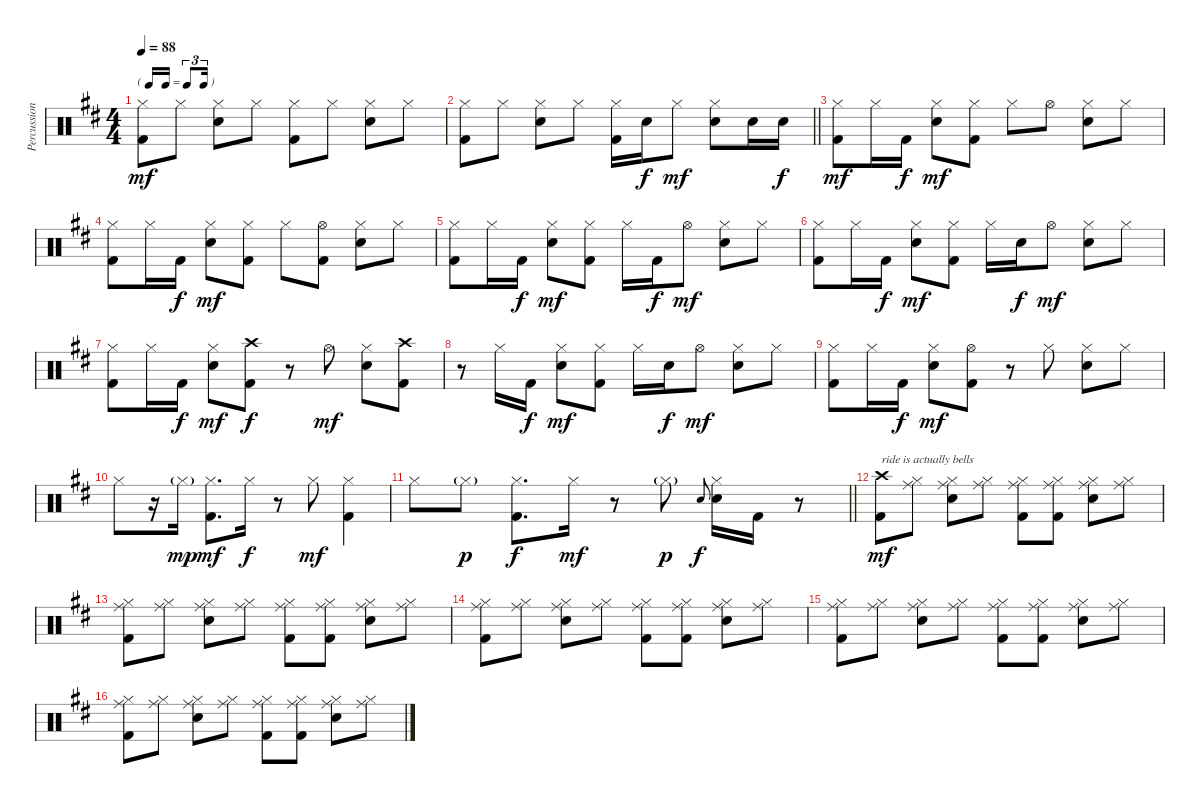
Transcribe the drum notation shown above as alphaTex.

\track ("Percussion" "Percussion") {instrument percussion}
\staff {score}
\articulation defaults
\ts (4 4)
\tf triplet16th
\tempo 88
\clef neutral
\ks d
("Hi-Hat (closed)" "Kick (hit) 2").8{dy mf} "Hi-Hat (closed)".8 ("Hi-Hat (closed)" "Snare (hit) 2").8 "Hi-Hat (closed)".8 ("Hi-Hat (closed)" "Kick (hit) 2").8 "Hi-Hat (closed)".8 ("Hi-Hat (closed)" "Snare (hit) 2").8 "Hi-Hat (closed)".8 |
\barLineRight lightlight
("Hi-Hat (closed)" "Kick (hit) 2").8 "Hi-Hat (closed)".8 ("Hi-Hat (closed)" "Snare (hit) 2").8 "Hi-Hat (closed)".8 ("Hi-Hat (closed)" "Kick (hit) 2").16 "Snare (hit) 2".16{dy f} "Hi-Hat (closed)".8{dy mf} ("Hi-Hat (closed)" "Snare (hit) 2").8 "Snare (hit) 2".16 "Snare (hit) 2".16{dy f} |
("Hi-Hat (closed)" "Kick (hit) 2").8{dy mf} "Hi-Hat (closed)".16 "Kick (hit) 2".16{dy f} ("Hi-Hat (closed)" "Snare (hit) 2").8{dy mf} ("Hi-Hat (closed)" "Kick (hit) 2").8 "Hi-Hat (closed)".8 "Hi-Hat (open)".8 ("Hi-Hat (closed)" "Snare (hit) 2").8 "Hi-Hat (closed)".8 |
("Hi-Hat (closed)" "Kick (hit) 2").8 "Hi-Hat (closed)".16 "Kick (hit) 2".16{dy f} ("Hi-Hat (closed)" "Snare (hit) 2").8{dy mf} ("Hi-Hat (closed)" "Kick (hit) 2").8 "Hi-Hat (closed)".8 ("Hi-Hat (open)" "Kick (hit) 2").8 ("Hi-Hat (closed)" "Snare (hit) 2").8 "Hi-Hat (closed)".8 |
("Hi-Hat (closed)" "Kick (hit) 2").8 "Hi-Hat (closed)".16 "Kick (hit) 2".16{dy f} ("Hi-Hat (closed)" "Snare (hit) 2").8{dy mf} ("Hi-Hat (closed)" "Kick (hit) 2").8 "Hi-Hat (closed)".16 "Kick (hit) 2".16{dy f} "Hi-Hat (open)".8{dy mf} ("Hi-Hat (closed)" "Snare (hit) 2").8 "Hi-Hat (closed)".8 |
("Hi-Hat (closed)" "Kick (hit) 2").8 "Hi-Hat (closed)".16 "Kick (hit) 2".16{dy f} ("Hi-Hat (closed)" "Snare (hit) 2").8{dy mf} ("Hi-Hat (closed)" "Kick (hit) 2").8 "Hi-Hat (closed)".16 "Snare (hit) 2".16{dy f} "Hi-Hat (open)".8{dy mf} ("Hi-Hat (closed)" "Snare (hit) 2").8 "Hi-Hat (closed)".8 |
("Hi-Hat (closed)" "Kick (hit) 2").8 "Hi-Hat (closed)".16 "Kick (hit) 2".16{dy f} ("Hi-Hat (closed)" "Snare (hit) 2").8{dy mf} ("Crash high (hit)" "Kick (hit) 2").8{dy f} r.8 "Hi-Hat (open)".8{dy mf} ("Hi-Hat (closed)" "Snare (hit) 2").8 ("Crash high (hit)" "Kick (hit) 2").8 |
r.8 "Hi-Hat (closed)".16 "Kick (hit) 2".16{dy f} ("Hi-Hat (closed)" "Snare (hit) 2").8{dy mf} ("Hi-Hat (closed)" "Kick (hit) 2").8 "Hi-Hat (closed)".16 "Snare (hit) 2".16{dy f} "Hi-Hat (open)".8{dy mf} ("Hi-Hat (closed)" "Snare (hit) 2").8 "Hi-Hat (closed)".8 |
("Hi-Hat (closed)" "Kick (hit) 2").8 "Hi-Hat (closed)".16 "Kick (hit) 2".16{dy f} ("Hi-Hat (closed)" "Snare (hit) 2").8{dy mf} ("Hi-Hat (open)" "Kick (hit) 2").8 r.8 "Hi-Hat (closed)".8 ("Hi-Hat (closed)" "Snare (hit) 2").8 "Hi-Hat (closed)".8 |
"Hi-Hat (closed)".8 r.16 "Hi-Hat (closed)"{g}.16{dy mp} ("Hi-Hat (closed)" "Kick (hit) 2").8{d dy mf} "Hi-Hat (closed)".16{dy f} r.8 "Hi-Hat (closed)".8{dy mf} ("Hi-Hat (closed)" "Kick (hit) 2").4 |
\barLineRight lightlight "Hi-Hat (closed)".8 "Hi-Hat (closed)"{g}.8{dy p}
("Hi-Hat (closed)" "Kick (hit) 2").8{d dy f} "Hi-Hat (closed)".16{dy mf} r.8 "Hi-Hat (closed)"{g}.8{dy p} "Snare (hit) 2".8{gr onbeat dy f} ("Hi-Hat (closed)" "Snare (hit) 2").16 "Kick (hit) 2".16 r.8 |
("Crash high (hit)" "Kick (hit) 2").8{txt "ride is actually bells" dy mf} ("Hi-Hat (closed)" "Ride (middle)").8 ("Hi-Hat (closed)" "Ride (middle)" "Snare (hit) 2").8 ("Hi-Hat (closed)" "Ride (middle)").8 ("Hi-Hat (closed)" "Ride (middle)" "Kick (hit) 2").8 ("Hi-Hat (closed)" "Ride (middle)" "Kick (hit) 2").8 ("Hi-Hat (closed)" "Ride (middle)" "Snare (hit) 2").8 ("Hi-Hat (closed)" "Ride (middle)").8 |
("Ride (middle)" "Hi-Hat (closed)" "Kick (hit) 2").8 ("Ride (middle)" "Hi-Hat (closed)").8 ("Ride (middle)" "Hi-Hat (closed)" "Snare (hit) 2").8 ("Ride (middle)" "Hi-Hat (closed)").8 ("Ride (middle)" "Hi-Hat (closed)" "Kick (hit) 2").8 ("Ride (middle)" "Hi-Hat (closed)" "Kick (hit) 2").8 ("Ride (middle)" "Hi-Hat (closed)" "Snare (hit) 2").8 ("Ride (middle)" "Hi-Hat (closed)").8 |
("Ride (middle)" "Hi-Hat (closed)" "Kick (hit) 2").8 ("Ride (middle)" "Hi-Hat (closed)").8 ("Ride (middle)" "Hi-Hat (closed)" "Snare (hit) 2").8 ("Ride (middle)" "Hi-Hat (closed)").8 ("Ride (middle)" "Hi-Hat (closed)" "Kick (hit) 2").8 ("Ride (middle)" "Hi-Hat (closed)" "Kick (hit) 2").8 ("Ride (middle)" "Hi-Hat (closed)" "Snare (hit) 2").8 ("Ride (middle)" "Hi-Hat (closed)").8 |
("Ride (middle)" "Hi-Hat (closed)" "Kick (hit) 2").8 ("Ride (middle)" "Hi-Hat (closed)").8 ("Ride (middle)" "Hi-Hat (closed)" "Snare (hit) 2").8 ("Ride (middle)" "Hi-Hat (closed)").8 ("Ride (middle)" "Hi-Hat (closed)" "Kick (hit) 2").8 ("Ride (middle)" "Hi-Hat (closed)" "Kick (hit) 2").8 ("Ride (middle)" "Hi-Hat (closed)" "Snare (hit) 2").8 ("Ride (middle)" "Hi-Hat (closed)").8 |
("Ride (middle)" "Hi-Hat (closed)" "Kick (hit) 2").8 ("Ride (middle)" "Hi-Hat (closed)").8 ("Ride (middle)" "Hi-Hat (closed)" "Snare (hit) 2").8 ("Ride (middle)" "Hi-Hat (closed)").8 ("Ride (middle)" "Hi-Hat (closed)" "Kick (hit) 2").8 ("Ride (middle)" "Hi-Hat (closed)" "Kick (hit) 2").8 ("Ride (middle)" "Hi-Hat (closed)" "Snare (hit) 2").8 ("Ride (middle)" "Hi-Hat (closed)").8
